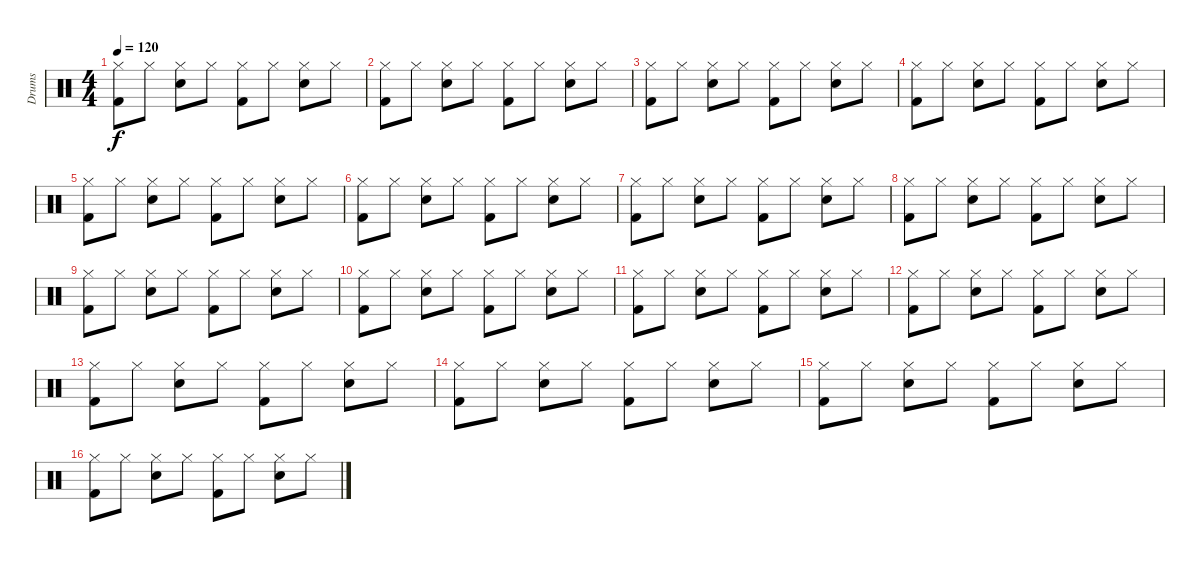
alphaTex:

\track ("Drums" "Drums") {instrument percussion}
\staff {score}
\articulation defaults
\ts (4 4)
\tempo 120
\clef neutral
\ks c
("Hi-Hat (closed)" "Kick (hit) 2").8{dy f} "Hi-Hat (closed)".8 ("Hi-Hat (closed)" "Snare (hit) 2").8 "Hi-Hat (closed)".8 ("Hi-Hat (closed)" "Kick (hit) 2").8 "Hi-Hat (closed)".8 ("Hi-Hat (closed)" "Snare (hit) 2").8 "Hi-Hat (closed)".8 |
("Hi-Hat (closed)" "Kick (hit) 2").8 "Hi-Hat (closed)".8 ("Hi-Hat (closed)" "Snare (hit) 2").8 "Hi-Hat (closed)".8 ("Hi-Hat (closed)" "Kick (hit) 2").8 "Hi-Hat (closed)".8 ("Hi-Hat (closed)" "Snare (hit) 2").8 "Hi-Hat (closed)".8 |
("Hi-Hat (closed)" "Kick (hit) 2").8 "Hi-Hat (closed)".8 ("Hi-Hat (closed)" "Snare (hit) 2").8 "Hi-Hat (closed)".8 ("Hi-Hat (closed)" "Kick (hit) 2").8 "Hi-Hat (closed)".8 ("Hi-Hat (closed)" "Snare (hit) 2").8 "Hi-Hat (closed)".8 |
("Hi-Hat (closed)" "Kick (hit) 2").8 "Hi-Hat (closed)".8 ("Hi-Hat (closed)" "Snare (hit) 2").8 "Hi-Hat (closed)".8 ("Hi-Hat (closed)" "Kick (hit) 2").8 "Hi-Hat (closed)".8 ("Hi-Hat (closed)" "Snare (hit) 2").8 "Hi-Hat (closed)".8 |
("Hi-Hat (closed)" "Kick (hit) 2").8 "Hi-Hat (closed)".8 ("Hi-Hat (closed)" "Snare (hit) 2").8 "Hi-Hat (closed)".8 ("Hi-Hat (closed)" "Kick (hit) 2").8 "Hi-Hat (closed)".8 ("Hi-Hat (closed)" "Snare (hit) 2").8 "Hi-Hat (closed)".8 |
("Hi-Hat (closed)" "Kick (hit) 2").8 "Hi-Hat (closed)".8 ("Hi-Hat (closed)" "Snare (hit) 2").8 "Hi-Hat (closed)".8 ("Hi-Hat (closed)" "Kick (hit) 2").8 "Hi-Hat (closed)".8 ("Hi-Hat (closed)" "Snare (hit) 2").8 "Hi-Hat (closed)".8 |
("Hi-Hat (closed)" "Kick (hit) 2").8 "Hi-Hat (closed)".8 ("Hi-Hat (closed)" "Snare (hit) 2").8 "Hi-Hat (closed)".8 ("Hi-Hat (closed)" "Kick (hit) 2").8 "Hi-Hat (closed)".8 ("Hi-Hat (closed)" "Snare (hit) 2").8 "Hi-Hat (closed)".8 |
("Hi-Hat (closed)" "Kick (hit) 2").8 "Hi-Hat (closed)".8 ("Hi-Hat (closed)" "Snare (hit) 2").8 "Hi-Hat (closed)".8 ("Hi-Hat (closed)" "Kick (hit) 2").8 "Hi-Hat (closed)".8 ("Hi-Hat (closed)" "Snare (hit) 2").8 "Hi-Hat (closed)".8 |
("Hi-Hat (closed)" "Kick (hit) 2").8 "Hi-Hat (closed)".8 ("Hi-Hat (closed)" "Snare (hit) 2").8 "Hi-Hat (closed)".8 ("Hi-Hat (closed)" "Kick (hit) 2").8 "Hi-Hat (closed)".8 ("Hi-Hat (closed)" "Snare (hit) 2").8 "Hi-Hat (closed)".8 |
("Hi-Hat (closed)" "Kick (hit) 2").8 "Hi-Hat (closed)".8 ("Hi-Hat (closed)" "Snare (hit) 2").8 "Hi-Hat (closed)".8 ("Hi-Hat (closed)" "Kick (hit) 2").8 "Hi-Hat (closed)".8 ("Hi-Hat (closed)" "Snare (hit) 2").8 "Hi-Hat (closed)".8 |
("Hi-Hat (closed)" "Kick (hit) 2").8 "Hi-Hat (closed)".8 ("Hi-Hat (closed)" "Snare (hit) 2").8 "Hi-Hat (closed)".8 ("Hi-Hat (closed)" "Kick (hit) 2").8 "Hi-Hat (closed)".8 ("Hi-Hat (closed)" "Snare (hit) 2").8 "Hi-Hat (closed)".8 |
("Hi-Hat (closed)" "Kick (hit) 2").8 "Hi-Hat (closed)".8 ("Hi-Hat (closed)" "Snare (hit) 2").8 "Hi-Hat (closed)".8 ("Hi-Hat (closed)" "Kick (hit) 2").8 "Hi-Hat (closed)".8 ("Hi-Hat (closed)" "Snare (hit) 2").8 "Hi-Hat (closed)".8 |
("Hi-Hat (closed)" "Kick (hit) 2").8 "Hi-Hat (closed)".8 ("Hi-Hat (closed)" "Snare (hit) 2").8 "Hi-Hat (closed)".8 ("Hi-Hat (closed)" "Kick (hit) 2").8 "Hi-Hat (closed)".8 ("Hi-Hat (closed)" "Snare (hit) 2").8 "Hi-Hat (closed)".8 |
("Hi-Hat (closed)" "Kick (hit) 2").8 "Hi-Hat (closed)".8 ("Hi-Hat (closed)" "Snare (hit) 2").8 "Hi-Hat (closed)".8 ("Hi-Hat (closed)" "Kick (hit) 2").8 "Hi-Hat (closed)".8 ("Hi-Hat (closed)" "Snare (hit) 2").8 "Hi-Hat (closed)".8 |
("Hi-Hat (closed)" "Kick (hit) 2").8 "Hi-Hat (closed)".8 ("Hi-Hat (closed)" "Snare (hit) 2").8 "Hi-Hat (closed)".8 ("Hi-Hat (closed)" "Kick (hit) 2").8 "Hi-Hat (closed)".8 ("Hi-Hat (closed)" "Snare (hit) 2").8 "Hi-Hat (closed)".8 |
("Hi-Hat (closed)" "Kick (hit) 2").8 "Hi-Hat (closed)".8 ("Hi-Hat (closed)" "Snare (hit) 2").8 "Hi-Hat (closed)".8 ("Hi-Hat (closed)" "Kick (hit) 2").8 "Hi-Hat (closed)".8 ("Hi-Hat (closed)" "Snare (hit) 2").8 "Hi-Hat (closed)".8
